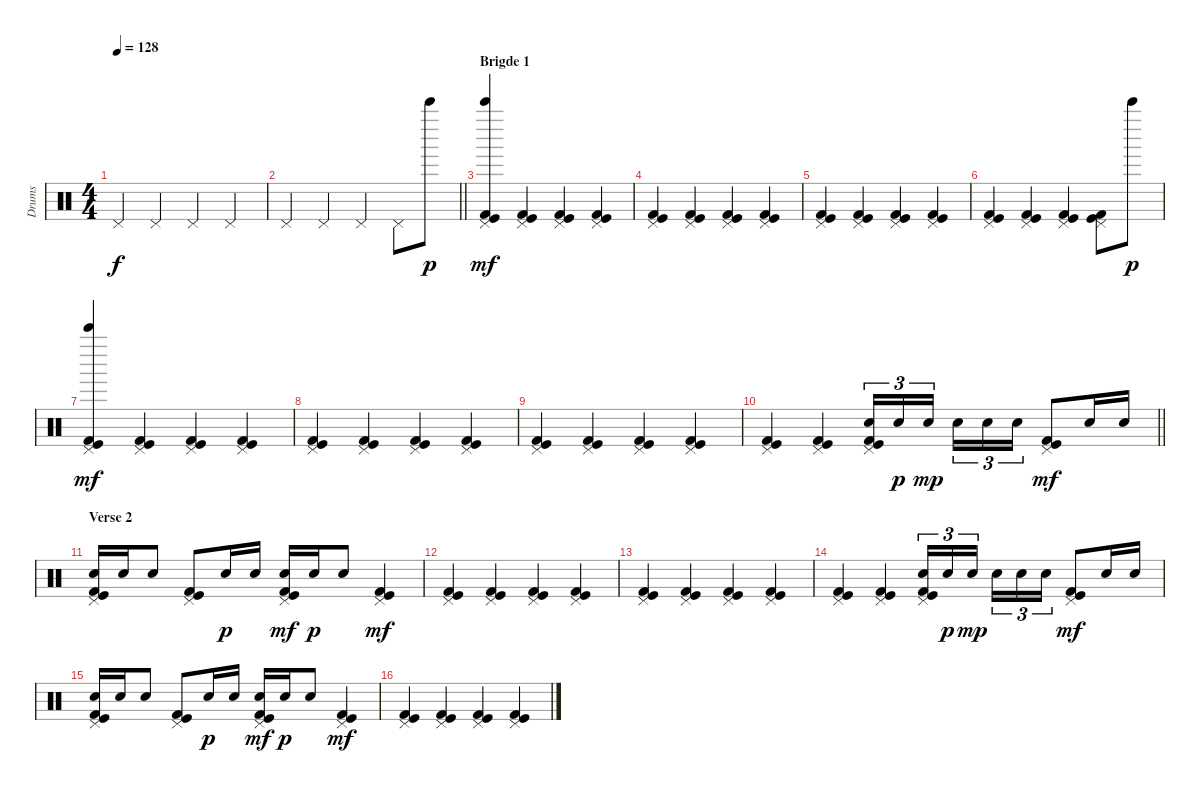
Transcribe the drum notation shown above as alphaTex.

\track ("Drums" "Drums") {instrument percussion}
\staff {score}
\articulation defaults
\ts (4 4)
\tempo 128
\clef neutral
\ks c "Pedal Hi-Hat (hit)".4{dy f} "Pedal Hi-Hat (hit)".4 "Pedal Hi-Hat (hit)".4 "Pedal Hi-Hat (hit)".4
|
\barLineRight lightlight "Pedal Hi-Hat (hit)".4 "Pedal Hi-Hat (hit)".4 "Pedal Hi-Hat (hit)".4 "Pedal Hi-Hat (hit)".8 "Bell Tree (hit)".8{dy p}
|
\section ("" "Brigde 1")
("Bell Tree (hit)" "Pedal Hi-Hat (hit)" "Kick (hit) 2" "Kick (hit)").4{dy mf} ("Pedal Hi-Hat (hit)" "Kick (hit) 2" "Kick (hit)").4 ("Pedal Hi-Hat (hit)" "Kick (hit) 2" "Kick (hit)").4 ("Pedal Hi-Hat (hit)" "Kick (hit) 2" "Kick (hit)").4 |
("Pedal Hi-Hat (hit)" "Kick (hit) 2" "Kick (hit)").4 ("Pedal Hi-Hat (hit)" "Kick (hit) 2" "Kick (hit)").4 ("Pedal Hi-Hat (hit)" "Kick (hit) 2" "Kick (hit)").4 ("Pedal Hi-Hat (hit)" "Kick (hit) 2" "Kick (hit)").4 |
("Pedal Hi-Hat (hit)" "Kick (hit) 2" "Kick (hit)").4 ("Pedal Hi-Hat (hit)" "Kick (hit) 2" "Kick (hit)").4 ("Pedal Hi-Hat (hit)" "Kick (hit) 2" "Kick (hit)").4 ("Pedal Hi-Hat (hit)" "Kick (hit) 2" "Kick (hit)").4 |
("Pedal Hi-Hat (hit)" "Kick (hit) 2" "Kick (hit)").4 ("Pedal Hi-Hat (hit)" "Kick (hit) 2" "Kick (hit)").4 ("Pedal Hi-Hat (hit)" "Kick (hit) 2" "Kick (hit)").4 ("Pedal Hi-Hat (hit)" "Kick (hit) 2" "Kick (hit)").8 "Bell Tree (hit)".8{dy p} |
("Bell Tree (hit)" "Pedal Hi-Hat (hit)" "Kick (hit) 2" "Kick (hit)").4{dy mf} ("Pedal Hi-Hat (hit)" "Kick (hit) 2" "Kick (hit)").4 ("Pedal Hi-Hat (hit)" "Kick (hit) 2" "Kick (hit)").4 ("Pedal Hi-Hat (hit)" "Kick (hit) 2" "Kick (hit)").4 |
("Pedal Hi-Hat (hit)" "Kick (hit) 2" "Kick (hit)").4 ("Pedal Hi-Hat (hit)" "Kick (hit) 2" "Kick (hit)").4 ("Pedal Hi-Hat (hit)" "Kick (hit) 2" "Kick (hit)").4 ("Pedal Hi-Hat (hit)" "Kick (hit) 2" "Kick (hit)").4 |
("Pedal Hi-Hat (hit)" "Kick (hit) 2" "Kick (hit)").4 ("Pedal Hi-Hat (hit)" "Kick (hit) 2" "Kick (hit)").4 ("Pedal Hi-Hat (hit)" "Kick (hit) 2" "Kick (hit)").4 ("Pedal Hi-Hat (hit)" "Kick (hit) 2" "Kick (hit)").4 |
\barLineRight lightlight
("Pedal Hi-Hat (hit)" "Kick (hit) 2" "Kick (hit)").4 ("Pedal Hi-Hat (hit)" "Kick (hit) 2" "Kick (hit)").4 ("Pedal Hi-Hat (hit)" "Electric Snare (hit)" "Kick (hit) 2" "Kick (hit)").16{tu (3 2)} "Electric Snare (hit)".16{tu (3 2) dy p} "Electric Snare (hit)".16{tu (3 2) dy mp beam splitsecondary} "Electric Snare (hit)".16{tu (3 2)} "Electric Snare (hit)".16{tu (3 2)} "Electric Snare (hit)".16{tu (3 2)} ("Pedal Hi-Hat (hit)" "Kick (hit) 2" "Kick (hit)").8{dy mf} "Electric Snare (hit)".16 "Electric Snare (hit)".16 |
\section ("" "Verse 2")
("Pedal Hi-Hat (hit)" "Electric Snare (hit)" "Kick (hit) 2" "Kick (hit)").16 "Electric Snare (hit)".16 "Electric Snare (hit)".8 ("Pedal Hi-Hat (hit)" "Kick (hit) 2" "Kick (hit)").8 "Electric Snare (hit)".16{dy p} "Electric Snare (hit)".16 ("Pedal Hi-Hat (hit)" "Electric Snare (hit)" "Kick (hit) 2" "Kick (hit)").16{dy mf} "Electric Snare (hit)".16{dy p} "Electric Snare (hit)".8 ("Pedal Hi-Hat (hit)" "Kick (hit) 2" "Kick (hit)").4{dy mf} |
("Pedal Hi-Hat (hit)" "Kick (hit) 2" "Kick (hit)").4 ("Pedal Hi-Hat (hit)" "Kick (hit) 2" "Kick (hit)").4 ("Pedal Hi-Hat (hit)" "Kick (hit) 2" "Kick (hit)").4 ("Pedal Hi-Hat (hit)" "Kick (hit) 2" "Kick (hit)").4 |
("Pedal Hi-Hat (hit)" "Kick (hit) 2" "Kick (hit)").4 ("Pedal Hi-Hat (hit)" "Kick (hit) 2" "Kick (hit)").4 ("Pedal Hi-Hat (hit)" "Kick (hit) 2" "Kick (hit)").4 ("Pedal Hi-Hat (hit)" "Kick (hit) 2" "Kick (hit)").4 |
("Pedal Hi-Hat (hit)" "Kick (hit) 2" "Kick (hit)").4 ("Pedal Hi-Hat (hit)" "Kick (hit) 2" "Kick (hit)").4 ("Pedal Hi-Hat (hit)" "Electric Snare (hit)" "Kick (hit) 2" "Kick (hit)").16{tu (3 2)} "Electric Snare (hit)".16{tu (3 2) dy p} "Electric Snare (hit)".16{tu (3 2) dy mp beam splitsecondary} "Electric Snare (hit)".16{tu (3 2)} "Electric Snare (hit)".16{tu (3 2)} "Electric Snare (hit)".16{tu (3 2)} ("Pedal Hi-Hat (hit)" "Kick (hit) 2" "Kick (hit)").8{dy mf} "Electric Snare (hit)".16 "Electric Snare (hit)".16 |
("Pedal Hi-Hat (hit)" "Electric Snare (hit)" "Kick (hit) 2" "Kick (hit)").16 "Electric Snare (hit)".16 "Electric Snare (hit)".8 ("Pedal Hi-Hat (hit)" "Kick (hit) 2" "Kick (hit)").8 "Electric Snare (hit)".16{dy p} "Electric Snare (hit)".16 ("Pedal Hi-Hat (hit)" "Electric Snare (hit)" "Kick (hit) 2" "Kick (hit)").16{dy mf} "Electric Snare (hit)".16{dy p} "Electric Snare (hit)".8 ("Pedal Hi-Hat (hit)" "Kick (hit) 2" "Kick (hit)").4{dy mf} |
("Pedal Hi-Hat (hit)" "Kick (hit) 2" "Kick (hit)").4 ("Pedal Hi-Hat (hit)" "Kick (hit) 2" "Kick (hit)").4 ("Pedal Hi-Hat (hit)" "Kick (hit) 2" "Kick (hit)").4 ("Pedal Hi-Hat (hit)" "Kick (hit) 2" "Kick (hit)").4
